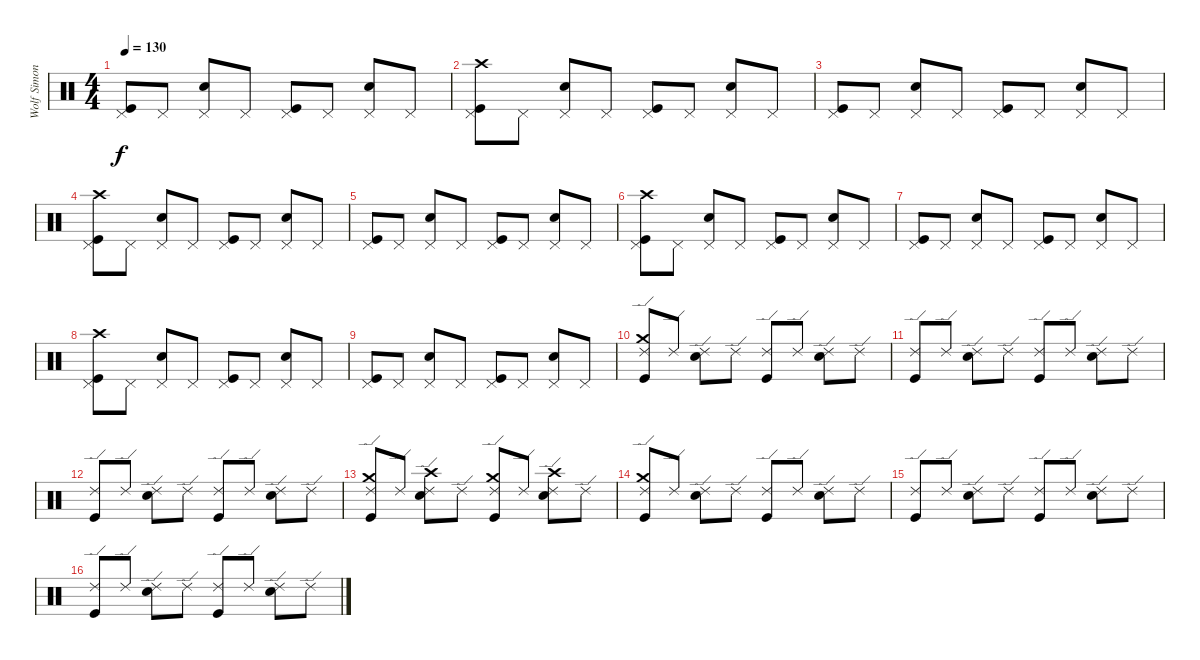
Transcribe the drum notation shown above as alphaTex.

\track ("Wolf Simon" "Wolf Simon") {instrument percussion}
\staff {score}
\articulation defaults
\ts (4 4)
\tempo 130
\clef neutral
\ks c
("Pedal Hi-Hat (hit)" "Kick (hit)").8{dy f} "Pedal Hi-Hat (hit)".8 ("Pedal Hi-Hat (hit)" "Electric Snare (hit)").8 "Pedal Hi-Hat (hit)".8 ("Pedal Hi-Hat (hit)" "Kick (hit)").8 "Pedal Hi-Hat (hit)".8 ("Pedal Hi-Hat (hit)" "Electric Snare (hit)").8 "Pedal Hi-Hat (hit)".8 |
("Crash high (hit)" "Pedal Hi-Hat (hit)" "Kick (hit)").8 "Pedal Hi-Hat (hit)".8 ("Pedal Hi-Hat (hit)" "Electric Snare (hit)").8 "Pedal Hi-Hat (hit)".8 ("Pedal Hi-Hat (hit)" "Kick (hit)").8 "Pedal Hi-Hat (hit)".8 ("Pedal Hi-Hat (hit)" "Electric Snare (hit)").8 "Pedal Hi-Hat (hit)".8 |
("Pedal Hi-Hat (hit)" "Kick (hit)").8 "Pedal Hi-Hat (hit)".8 ("Pedal Hi-Hat (hit)" "Electric Snare (hit)").8 "Pedal Hi-Hat (hit)".8 ("Pedal Hi-Hat (hit)" "Kick (hit)").8 "Pedal Hi-Hat (hit)".8 ("Pedal Hi-Hat (hit)" "Electric Snare (hit)").8 "Pedal Hi-Hat (hit)".8 |
("Crash high (hit)" "Pedal Hi-Hat (hit)" "Kick (hit)").8 "Pedal Hi-Hat (hit)".8 ("Pedal Hi-Hat (hit)" "Electric Snare (hit)").8 "Pedal Hi-Hat (hit)".8 ("Pedal Hi-Hat (hit)" "Kick (hit)").8 "Pedal Hi-Hat (hit)".8 ("Pedal Hi-Hat (hit)" "Electric Snare (hit)").8 "Pedal Hi-Hat (hit)".8 |
("Pedal Hi-Hat (hit)" "Kick (hit)").8 "Pedal Hi-Hat (hit)".8 ("Pedal Hi-Hat (hit)" "Electric Snare (hit)").8 "Pedal Hi-Hat (hit)".8 ("Pedal Hi-Hat (hit)" "Kick (hit)").8 "Pedal Hi-Hat (hit)".8 ("Pedal Hi-Hat (hit)" "Electric Snare (hit)").8 "Pedal Hi-Hat (hit)".8 |
("Crash high (hit)" "Pedal Hi-Hat (hit)" "Kick (hit)").8 "Pedal Hi-Hat (hit)".8 ("Pedal Hi-Hat (hit)" "Electric Snare (hit)").8 "Pedal Hi-Hat (hit)".8 ("Pedal Hi-Hat (hit)" "Kick (hit)").8 "Pedal Hi-Hat (hit)".8 ("Pedal Hi-Hat (hit)" "Electric Snare (hit)").8 "Pedal Hi-Hat (hit)".8 |
("Pedal Hi-Hat (hit)" "Kick (hit)").8 "Pedal Hi-Hat (hit)".8 ("Pedal Hi-Hat (hit)" "Electric Snare (hit)").8 "Pedal Hi-Hat (hit)".8 ("Pedal Hi-Hat (hit)" "Kick (hit)").8 "Pedal Hi-Hat (hit)".8 ("Pedal Hi-Hat (hit)" "Electric Snare (hit)").8 "Pedal Hi-Hat (hit)".8 |
("Crash high (hit)" "Pedal Hi-Hat (hit)" "Kick (hit)").8 "Pedal Hi-Hat (hit)".8 ("Pedal Hi-Hat (hit)" "Electric Snare (hit)").8 "Pedal Hi-Hat (hit)".8 ("Pedal Hi-Hat (hit)" "Kick (hit)").8 "Pedal Hi-Hat (hit)".8 ("Pedal Hi-Hat (hit)" "Electric Snare (hit)").8 "Pedal Hi-Hat (hit)".8 |
("Pedal Hi-Hat (hit)" "Kick (hit)").8 "Pedal Hi-Hat (hit)".8 ("Pedal Hi-Hat (hit)" "Electric Snare (hit)").8 "Pedal Hi-Hat (hit)".8 ("Pedal Hi-Hat (hit)" "Kick (hit)").8 "Pedal Hi-Hat (hit)".8 ("Pedal Hi-Hat (hit)" "Electric Snare (hit)").8 "Pedal Hi-Hat (hit)".8 |
("Crash medium (hit)" "Ride (edge) 2" "Kick (hit)").8 "Ride (edge) 2".8 ("Ride (edge) 2" "Electric Snare (hit)").8 "Ride (edge) 2".8 ("Ride (edge) 2" "Kick (hit)").8 "Ride (edge) 2".8 ("Ride (edge) 2" "Electric Snare (hit)").8 "Ride (edge) 2".8 |
("Ride (edge) 2" "Kick (hit)").8 "Ride (edge) 2".8 ("Ride (edge) 2" "Electric Snare (hit)").8 "Ride (edge) 2".8 ("Ride (edge) 2" "Kick (hit)").8 "Ride (edge) 2".8 ("Ride (edge) 2" "Electric Snare (hit)").8 "Ride (edge) 2".8 |
("Ride (edge) 2" "Kick (hit)").8 "Ride (edge) 2".8 ("Ride (edge) 2" "Electric Snare (hit)").8 "Ride (edge) 2".8 ("Ride (edge) 2" "Kick (hit)").8 "Ride (edge) 2".8 ("Ride (edge) 2" "Electric Snare (hit)").8 "Ride (edge) 2".8 |
("Crash medium (hit)" "Ride (edge) 2" "Kick (hit)").8 "Ride (edge) 2".8 ("Crash high (hit)" "Ride (edge) 2" "Electric Snare (hit)").8 "Ride (edge) 2".8 ("Crash medium (hit)" "Ride (edge) 2" "Kick (hit)").8 "Ride (edge) 2".8 ("Crash high (hit)" "Ride (edge) 2" "Electric Snare (hit)").8 "Ride (edge) 2".8 |
("Crash medium (hit)" "Ride (edge) 2" "Kick (hit)").8 "Ride (edge) 2".8 ("Ride (edge) 2" "Electric Snare (hit)").8 "Ride (edge) 2".8 ("Ride (edge) 2" "Kick (hit)").8 "Ride (edge) 2".8 ("Ride (edge) 2" "Electric Snare (hit)").8 "Ride (edge) 2".8 |
("Ride (edge) 2" "Kick (hit)").8 "Ride (edge) 2".8 ("Ride (edge) 2" "Electric Snare (hit)").8 "Ride (edge) 2".8 ("Ride (edge) 2" "Kick (hit)").8 "Ride (edge) 2".8 ("Ride (edge) 2" "Electric Snare (hit)").8 "Ride (edge) 2".8 |
("Ride (edge) 2" "Kick (hit)").8 "Ride (edge) 2".8 ("Ride (edge) 2" "Electric Snare (hit)").8 "Ride (edge) 2".8 ("Ride (edge) 2" "Kick (hit)").8 "Ride (edge) 2".8 ("Ride (edge) 2" "Electric Snare (hit)").8 "Ride (edge) 2".8
